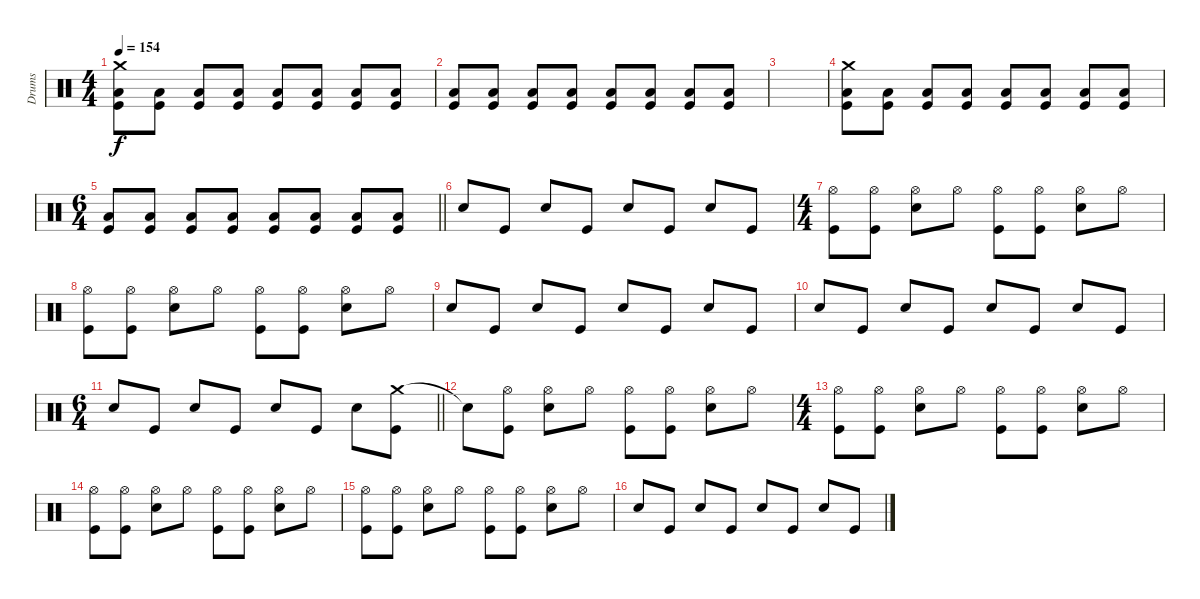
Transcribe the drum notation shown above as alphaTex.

\track ("Drums" "Drums") {instrument percussion}
\staff {score}
\articulation defaults
\ts (4 4)
\tempo 154
\clef neutral
\ks c
("Crash medium (hit)" "Low Tom (hit)" "Kick (hit)").8{dy f} ("Low Tom (hit)" "Kick (hit)").8 ("Low Tom (hit)" "Kick (hit)").8 ("Low Tom (hit)" "Kick (hit)").8 ("Low Tom (hit)" "Kick (hit)").8 ("Low Tom (hit)" "Kick (hit)").8 ("Low Tom (hit)" "Kick (hit)").8 ("Low Tom (hit)" "Kick (hit)").8 |
("Low Tom (hit)" "Kick (hit)").8 ("Low Tom (hit)" "Kick (hit)").8 ("Low Tom (hit)" "Kick (hit)").8 ("Low Tom (hit)" "Kick (hit)").8 ("Low Tom (hit)" "Kick (hit)").8 ("Low Tom (hit)" "Kick (hit)").8 ("Low Tom (hit)" "Kick (hit)").8 ("Low Tom (hit)" "Kick (hit)").8 |
|
("Crash medium (hit)" "Low Tom (hit)" "Kick (hit)").8 ("Low Tom (hit)" "Kick (hit)").8 ("Low Tom (hit)" "Kick (hit)").8 ("Low Tom (hit)" "Kick (hit)").8 ("Low Tom (hit)" "Kick (hit)").8 ("Low Tom (hit)" "Kick (hit)").8 ("Low Tom (hit)" "Kick (hit)").8 ("Low Tom (hit)" "Kick (hit)").8 |
\ts (6 4)
\barLineRight lightlight
("Low Tom (hit)" "Kick (hit)").8 ("Low Tom (hit)" "Kick (hit)").8 ("Low Tom (hit)" "Kick (hit)").8 ("Low Tom (hit)" "Kick (hit)").8 ("Low Tom (hit)" "Kick (hit)").8 ("Low Tom (hit)" "Kick (hit)").8 ("Low Tom (hit)" "Kick (hit)").8 ("Low Tom (hit)" "Kick (hit)").8 |
"Electric Snare (hit)".8 "Kick (hit)".8 "Electric Snare (hit)".8 "Kick (hit)".8 "Electric Snare (hit)".8 "Kick (hit)".8 "Electric Snare (hit)".8 "Kick (hit)".8 |
\ts (4 4)
("Hi-Hat (open)" "Kick (hit)").8 ("Hi-Hat (open)" "Kick (hit)").8 ("Hi-Hat (open)" "Electric Snare (hit)").8 "Hi-Hat (open)".8 ("Hi-Hat (open)" "Kick (hit)").8 ("Hi-Hat (open)" "Kick (hit)").8 ("Hi-Hat (open)" "Electric Snare (hit)").8 "Hi-Hat (open)".8 |
("Hi-Hat (open)" "Kick (hit)").8 ("Hi-Hat (open)" "Kick (hit)").8 ("Hi-Hat (open)" "Electric Snare (hit)").8 "Hi-Hat (open)".8 ("Hi-Hat (open)" "Kick (hit)").8 ("Hi-Hat (open)" "Kick (hit)").8 ("Hi-Hat (open)" "Electric Snare (hit)").8 "Hi-Hat (open)".8 |
"Electric Snare (hit)".8 "Kick (hit)".8 "Electric Snare (hit)".8 "Kick (hit)".8 "Electric Snare (hit)".8 "Kick (hit)".8 "Electric Snare (hit)".8 "Kick (hit)".8 |
"Electric Snare (hit)".8 "Kick (hit)".8 "Electric Snare (hit)".8 "Kick (hit)".8 "Electric Snare (hit)".8 "Kick (hit)".8 "Electric Snare (hit)".8 "Kick (hit)".8 |
\ts (6 4)
\barLineRight lightlight "Electric Snare (hit)".8 "Kick (hit)".8 "Electric Snare (hit)".8 "Kick (hit)".8 "Electric Snare (hit)".8 "Kick (hit)".8 "Electric Snare (hit)".8
("Crash medium (hit)" "Kick (hit)").8 |
"Snare (hit)"{t}.8 ("Hi-Hat (open)" "Kick (hit)").8 ("Hi-Hat (open)" "Electric Snare (hit)").8 "Hi-Hat (open)".8 ("Hi-Hat (open)" "Kick (hit)").8 ("Hi-Hat (open)" "Kick (hit)").8 ("Hi-Hat (open)" "Electric Snare (hit)").8 "Hi-Hat (open)".8 |
\ts (4 4)
("Hi-Hat (open)" "Kick (hit)").8 ("Hi-Hat (open)" "Kick (hit)").8 ("Hi-Hat (open)" "Electric Snare (hit)").8 "Hi-Hat (open)".8 ("Hi-Hat (open)" "Kick (hit)").8 ("Hi-Hat (open)" "Kick (hit)").8 ("Hi-Hat (open)" "Electric Snare (hit)").8 "Hi-Hat (open)".8 |
("Hi-Hat (open)" "Kick (hit)").8 ("Hi-Hat (open)" "Kick (hit)").8 ("Hi-Hat (open)" "Electric Snare (hit)").8 "Hi-Hat (open)".8 ("Hi-Hat (open)" "Kick (hit)").8 ("Hi-Hat (open)" "Kick (hit)").8 ("Hi-Hat (open)" "Electric Snare (hit)").8 "Hi-Hat (open)".8 |
("Hi-Hat (open)" "Kick (hit)").8 ("Hi-Hat (open)" "Kick (hit)").8 ("Hi-Hat (open)" "Electric Snare (hit)").8 "Hi-Hat (open)".8 ("Hi-Hat (open)" "Kick (hit)").8 ("Hi-Hat (open)" "Kick (hit)").8 ("Hi-Hat (open)" "Electric Snare (hit)").8 "Hi-Hat (open)".8 |
"Electric Snare (hit)".8 "Kick (hit)".8 "Electric Snare (hit)".8 "Kick (hit)".8 "Electric Snare (hit)".8 "Kick (hit)".8 "Electric Snare (hit)".8 "Kick (hit)".8
